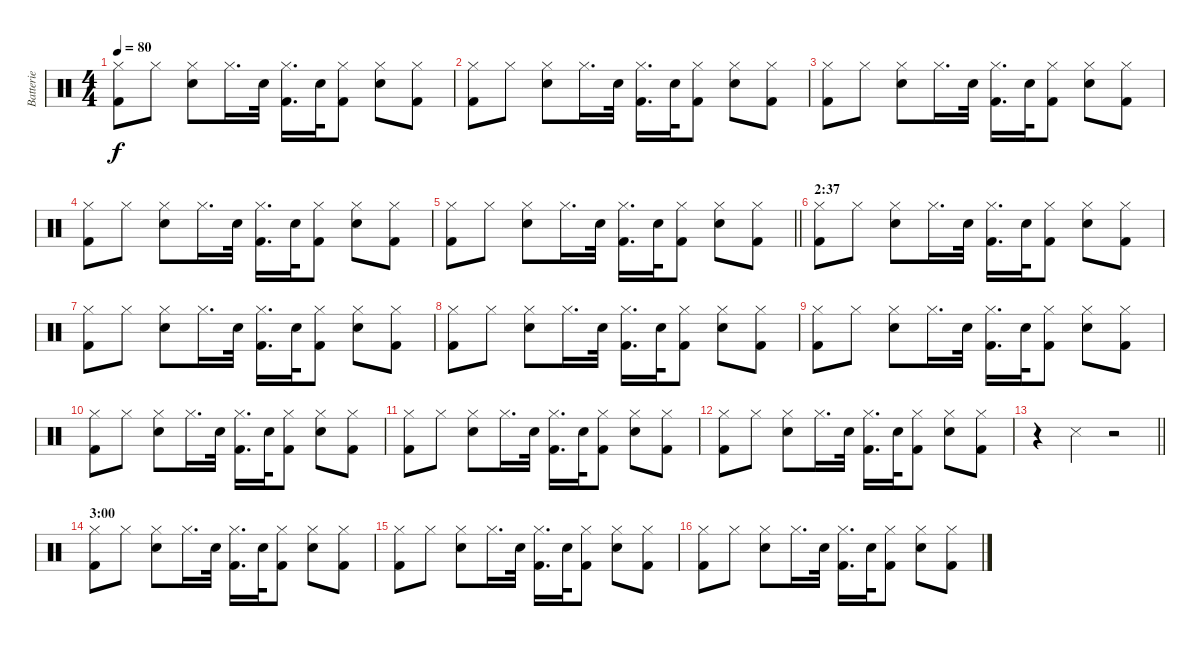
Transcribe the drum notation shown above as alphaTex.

\track ("Batterie" "Batterie") {instrument percussion bank 177}
\staff {score}
\articulation defaults
\ts (4 4)
\tempo 80
\clef neutral
\ks c
("Hi-Hat (closed)" "Kick (hit) 2").8{dy f} "Hi-Hat (closed)".8 ("Hi-Hat (closed)" "Electric Snare (hit)").8 "Hi-Hat (closed)".16{d} "Electric Snare (hit)".32 ("Hi-Hat (closed)" "Kick (hit) 2").16{d} "Electric Snare (hit)".32 ("Hi-Hat (closed)" "Kick (hit) 2").8 ("Hi-Hat (closed)" "Electric Snare (hit)").8 ("Hi-Hat (closed)" "Kick (hit) 2").8 |
("Hi-Hat (closed)" "Kick (hit) 2").8 "Hi-Hat (closed)".8 ("Hi-Hat (closed)" "Electric Snare (hit)").8 "Hi-Hat (closed)".16{d} "Electric Snare (hit)".32 ("Hi-Hat (closed)" "Kick (hit) 2").16{d} "Electric Snare (hit)".32 ("Hi-Hat (closed)" "Kick (hit) 2").8 ("Hi-Hat (closed)" "Electric Snare (hit)").8 ("Hi-Hat (closed)" "Kick (hit) 2").8 |
("Hi-Hat (closed)" "Kick (hit) 2").8 "Hi-Hat (closed)".8 ("Hi-Hat (closed)" "Electric Snare (hit)").8 "Hi-Hat (closed)".16{d} "Electric Snare (hit)".32 ("Hi-Hat (closed)" "Kick (hit) 2").16{d} "Electric Snare (hit)".32 ("Hi-Hat (closed)" "Kick (hit) 2").8 ("Hi-Hat (closed)" "Electric Snare (hit)").8 ("Hi-Hat (closed)" "Kick (hit) 2").8 |
("Hi-Hat (closed)" "Kick (hit) 2").8 "Hi-Hat (closed)".8 ("Hi-Hat (closed)" "Electric Snare (hit)").8 "Hi-Hat (closed)".16{d} "Electric Snare (hit)".32 ("Hi-Hat (closed)" "Kick (hit) 2").16{d} "Electric Snare (hit)".32 ("Hi-Hat (closed)" "Kick (hit) 2").8 ("Hi-Hat (closed)" "Electric Snare (hit)").8 ("Hi-Hat (closed)" "Kick (hit) 2").8 |
\barLineRight lightlight
("Hi-Hat (closed)" "Kick (hit) 2").8 "Hi-Hat (closed)".8 ("Hi-Hat (closed)" "Electric Snare (hit)").8 "Hi-Hat (closed)".16{d} "Electric Snare (hit)".32 ("Hi-Hat (closed)" "Kick (hit) 2").16{d} "Electric Snare (hit)".32 ("Hi-Hat (closed)" "Kick (hit) 2").8 ("Hi-Hat (closed)" "Electric Snare (hit)").8 ("Hi-Hat (closed)" "Kick (hit) 2").8 |
\section ("" "2:37")
("Hi-Hat (closed)" "Kick (hit) 2").8 "Hi-Hat (closed)".8 ("Hi-Hat (closed)" "Electric Snare (hit)").8 "Hi-Hat (closed)".16{d} "Electric Snare (hit)".32 ("Hi-Hat (closed)" "Kick (hit) 2").16{d} "Electric Snare (hit)".32 ("Hi-Hat (closed)" "Kick (hit) 2").8 ("Hi-Hat (closed)" "Electric Snare (hit)").8 ("Hi-Hat (closed)" "Kick (hit) 2").8 |
("Hi-Hat (closed)" "Kick (hit) 2").8 "Hi-Hat (closed)".8 ("Hi-Hat (closed)" "Electric Snare (hit)").8 "Hi-Hat (closed)".16{d} "Electric Snare (hit)".32 ("Hi-Hat (closed)" "Kick (hit) 2").16{d} "Electric Snare (hit)".32 ("Hi-Hat (closed)" "Kick (hit) 2").8 ("Hi-Hat (closed)" "Electric Snare (hit)").8 ("Hi-Hat (closed)" "Kick (hit) 2").8 |
("Hi-Hat (closed)" "Kick (hit) 2").8 "Hi-Hat (closed)".8 ("Hi-Hat (closed)" "Electric Snare (hit)").8 "Hi-Hat (closed)".16{d} "Electric Snare (hit)".32 ("Hi-Hat (closed)" "Kick (hit) 2").16{d} "Electric Snare (hit)".32 ("Hi-Hat (closed)" "Kick (hit) 2").8 ("Hi-Hat (closed)" "Electric Snare (hit)").8 ("Hi-Hat (closed)" "Kick (hit) 2").8 |
("Hi-Hat (closed)" "Kick (hit) 2").8 "Hi-Hat (closed)".8 ("Hi-Hat (closed)" "Electric Snare (hit)").8 "Hi-Hat (closed)".16{d} "Electric Snare (hit)".32 ("Hi-Hat (closed)" "Kick (hit) 2").16{d} "Electric Snare (hit)".32 ("Hi-Hat (closed)" "Kick (hit) 2").8 ("Hi-Hat (closed)" "Electric Snare (hit)").8 ("Hi-Hat (closed)" "Kick (hit) 2").8 |
("Hi-Hat (closed)" "Kick (hit) 2").8 "Hi-Hat (closed)".8 ("Hi-Hat (closed)" "Electric Snare (hit)").8 "Hi-Hat (closed)".16{d} "Electric Snare (hit)".32 ("Hi-Hat (closed)" "Kick (hit) 2").16{d} "Electric Snare (hit)".32 ("Hi-Hat (closed)" "Kick (hit) 2").8 ("Hi-Hat (closed)" "Electric Snare (hit)").8 ("Hi-Hat (closed)" "Kick (hit) 2").8 |
("Hi-Hat (closed)" "Kick (hit) 2").8 "Hi-Hat (closed)".8 ("Hi-Hat (closed)" "Electric Snare (hit)").8 "Hi-Hat (closed)".16{d} "Electric Snare (hit)".32 ("Hi-Hat (closed)" "Kick (hit) 2").16{d} "Electric Snare (hit)".32 ("Hi-Hat (closed)" "Kick (hit) 2").8 ("Hi-Hat (closed)" "Electric Snare (hit)").8 ("Hi-Hat (closed)" "Kick (hit) 2").8 |
("Hi-Hat (closed)" "Kick (hit) 2").8 "Hi-Hat (closed)".8 ("Hi-Hat (closed)" "Electric Snare (hit)").8 "Hi-Hat (closed)".16{d} "Electric Snare (hit)".32 ("Hi-Hat (closed)" "Kick (hit) 2").16{d} "Electric Snare (hit)".32 ("Hi-Hat (closed)" "Kick (hit) 2").8 ("Hi-Hat (closed)" "Electric Snare (hit)").8 ("Hi-Hat (closed)" "Kick (hit) 2").8 |
\barLineRight lightlight
r.4 "Snare (side stick) 3".4 r.2 |
\section ("" "3:00")
("Hi-Hat (closed)" "Kick (hit) 2").8 "Hi-Hat (closed)".8 ("Hi-Hat (closed)" "Electric Snare (hit)").8 "Hi-Hat (closed)".16{d} "Electric Snare (hit)".32 ("Hi-Hat (closed)" "Kick (hit) 2").16{d} "Electric Snare (hit)".32 ("Hi-Hat (closed)" "Kick (hit) 2").8 ("Hi-Hat (closed)" "Electric Snare (hit)").8 ("Hi-Hat (closed)" "Kick (hit) 2").8 |
("Hi-Hat (closed)" "Kick (hit) 2").8 "Hi-Hat (closed)".8 ("Hi-Hat (closed)" "Electric Snare (hit)").8 "Hi-Hat (closed)".16{d} "Electric Snare (hit)".32 ("Hi-Hat (closed)" "Kick (hit) 2").16{d} "Electric Snare (hit)".32 ("Hi-Hat (closed)" "Kick (hit) 2").8 ("Hi-Hat (closed)" "Electric Snare (hit)").8 ("Hi-Hat (closed)" "Kick (hit) 2").8 |
("Hi-Hat (closed)" "Kick (hit) 2").8 "Hi-Hat (closed)".8 ("Hi-Hat (closed)" "Electric Snare (hit)").8 "Hi-Hat (closed)".16{d} "Electric Snare (hit)".32 ("Hi-Hat (closed)" "Kick (hit) 2").16{d} "Electric Snare (hit)".32 ("Hi-Hat (closed)" "Kick (hit) 2").8 ("Hi-Hat (closed)" "Electric Snare (hit)").8 ("Hi-Hat (closed)" "Kick (hit) 2").8
